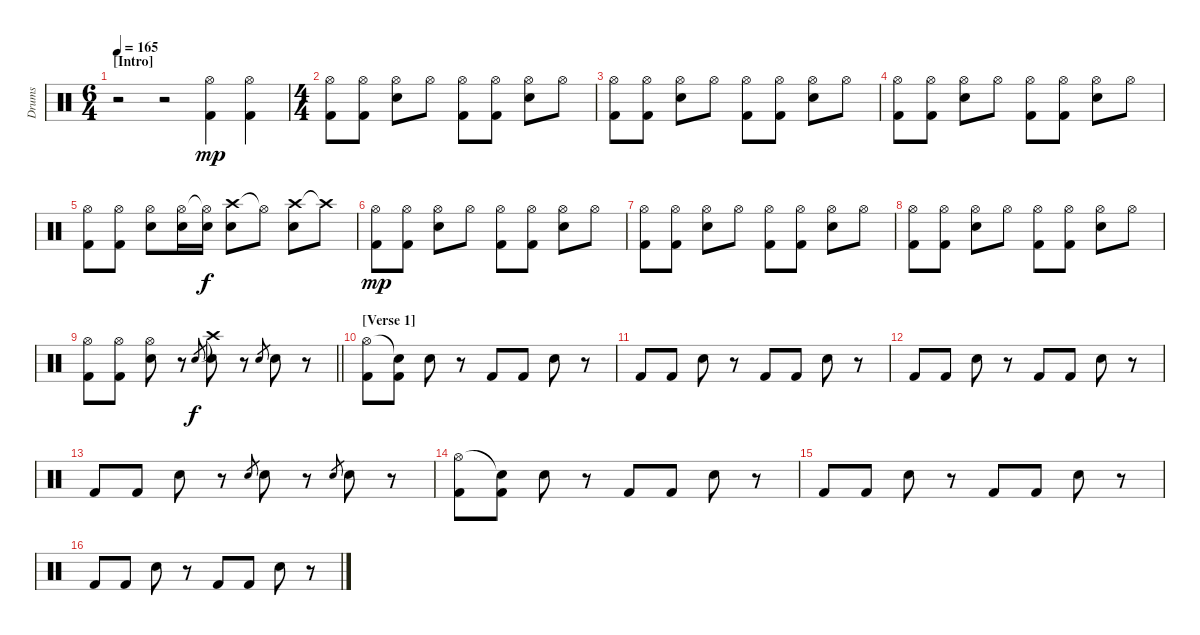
\track ("Drums" "Drums") {instrument percussion}
\staff {score}
\articulation defaults
\ts (6 4)
\section ("" "[Intro]")
\tempo 165
\clef neutral
\ks c
r.2{dy mp} r.2 ("Hi-Hat (open)" "Kick (hit) 2").4 ("Hi-Hat (open)" "Kick (hit) 2").4 |
\ts (4 4)
("Hi-Hat (open)" "Kick (hit) 2").8 ("Hi-Hat (open)" "Kick (hit) 2").8 ("Hi-Hat (open)" "Electric Snare (hit)").8 "Hi-Hat (open)".8 ("Hi-Hat (open)" "Kick (hit) 2").8 ("Hi-Hat (open)" "Kick (hit) 2").8 ("Hi-Hat (open)" "Electric Snare (hit)").8 "Hi-Hat (open)".8 |
("Hi-Hat (open)" "Kick (hit) 2").8 ("Hi-Hat (open)" "Kick (hit) 2").8 ("Hi-Hat (open)" "Electric Snare (hit)").8 "Hi-Hat (open)".8 ("Hi-Hat (open)" "Kick (hit) 2").8 ("Hi-Hat (open)" "Kick (hit) 2").8 ("Hi-Hat (open)" "Electric Snare (hit)").8 "Hi-Hat (open)".8 |
("Hi-Hat (open)" "Kick (hit) 2").8 ("Hi-Hat (open)" "Kick (hit) 2").8 ("Hi-Hat (open)" "Electric Snare (hit)").8 "Hi-Hat (open)".8 ("Hi-Hat (open)" "Kick (hit) 2").8 ("Hi-Hat (open)" "Kick (hit) 2").8 ("Hi-Hat (open)" "Electric Snare (hit)").8 "Hi-Hat (open)".8 |
("Hi-Hat (open)" "Kick (hit) 2").8 ("Hi-Hat (open)" "Kick (hit) 2").8 ("Hi-Hat (open)" "Electric Snare (hit)").8 ("Hi-Hat (open)" "Electric Snare (hit)").16 ("Hi-Hat (open)"{t} "Electric Snare (hit)").16{dy f} ("Crash high (hit)" "Electric Snare (hit)").8 "Hi-Hat (open)"{t}.8 ("Crash high (hit)" "Electric Snare (hit)").8 "Crash high (hit)"{t}.8 |
("Hi-Hat (open)" "Kick (hit) 2").8{dy mp} ("Hi-Hat (open)" "Kick (hit) 2").8 ("Hi-Hat (open)" "Electric Snare (hit)").8 "Hi-Hat (open)".8 ("Hi-Hat (open)" "Kick (hit) 2").8 ("Hi-Hat (open)" "Kick (hit) 2").8 ("Hi-Hat (open)" "Electric Snare (hit)").8 "Hi-Hat (open)".8 |
("Hi-Hat (open)" "Kick (hit) 2").8 ("Hi-Hat (open)" "Kick (hit) 2").8 ("Hi-Hat (open)" "Electric Snare (hit)").8 "Hi-Hat (open)".8 ("Hi-Hat (open)" "Kick (hit) 2").8 ("Hi-Hat (open)" "Kick (hit) 2").8 ("Hi-Hat (open)" "Electric Snare (hit)").8 "Hi-Hat (open)".8 |
("Hi-Hat (open)" "Kick (hit) 2").8 ("Hi-Hat (open)" "Kick (hit) 2").8 ("Hi-Hat (open)" "Electric Snare (hit)").8 "Hi-Hat (open)".8 ("Hi-Hat (open)" "Kick (hit) 2").8 ("Hi-Hat (open)" "Kick (hit) 2").8 ("Hi-Hat (open)" "Electric Snare (hit)").8 "Hi-Hat (open)".8 |
\barLineRight lightlight
("Hi-Hat (open)" "Kick (hit) 2").8 ("Hi-Hat (open)" "Kick (hit) 2").8 ("Hi-Hat (open)" "Electric Snare (hit)").8 r.8 "Electric Snare (hit)".8{gr dy f} ("Crash high (hit)"{t} "Electric Snare (hit)").8 r.8 "Electric Snare (hit)".8{gr} "Electric Snare (hit)".8 r.8 |
\section ("" "[Verse 1]")
("Hi-Hat (open)" "Kick (hit) 2").8 ("Snare (hit)"{t} "Kick (hit) 2").8 "Electric Snare (hit)".8 r.8 "Kick (hit) 2".8 "Kick (hit) 2".8 "Electric Snare (hit)".8 r.8 |
"Kick (hit) 2".8 "Kick (hit) 2".8 "Electric Snare (hit)".8 r.8 "Kick (hit) 2".8 "Kick (hit) 2".8 "Electric Snare (hit)".8 r.8 |
"Kick (hit) 2".8 "Kick (hit) 2".8 "Electric Snare (hit)".8 r.8 "Kick (hit) 2".8 "Kick (hit) 2".8 "Electric Snare (hit)".8 r.8 |
"Kick (hit) 2".8 "Kick (hit) 2".8 "Electric Snare (hit)".8 r.8 "Electric Snare (hit)".8{gr} "Electric Snare (hit)".8 r.8 "Electric Snare (hit)".8{gr} "Electric Snare (hit)".8 r.8 |
("Hi-Hat (open)" "Kick (hit) 2").8 ("Snare (hit)"{t} "Kick (hit) 2").8 "Electric Snare (hit)".8 r.8 "Kick (hit) 2".8 "Kick (hit) 2".8 "Electric Snare (hit)".8 r.8 |
"Kick (hit) 2".8 "Kick (hit) 2".8 "Electric Snare (hit)".8 r.8 "Kick (hit) 2".8 "Kick (hit) 2".8 "Electric Snare (hit)".8 r.8 |
"Kick (hit) 2".8 "Kick (hit) 2".8 "Electric Snare (hit)".8 r.8 "Kick (hit) 2".8 "Kick (hit) 2".8 "Electric Snare (hit)".8 r.8
